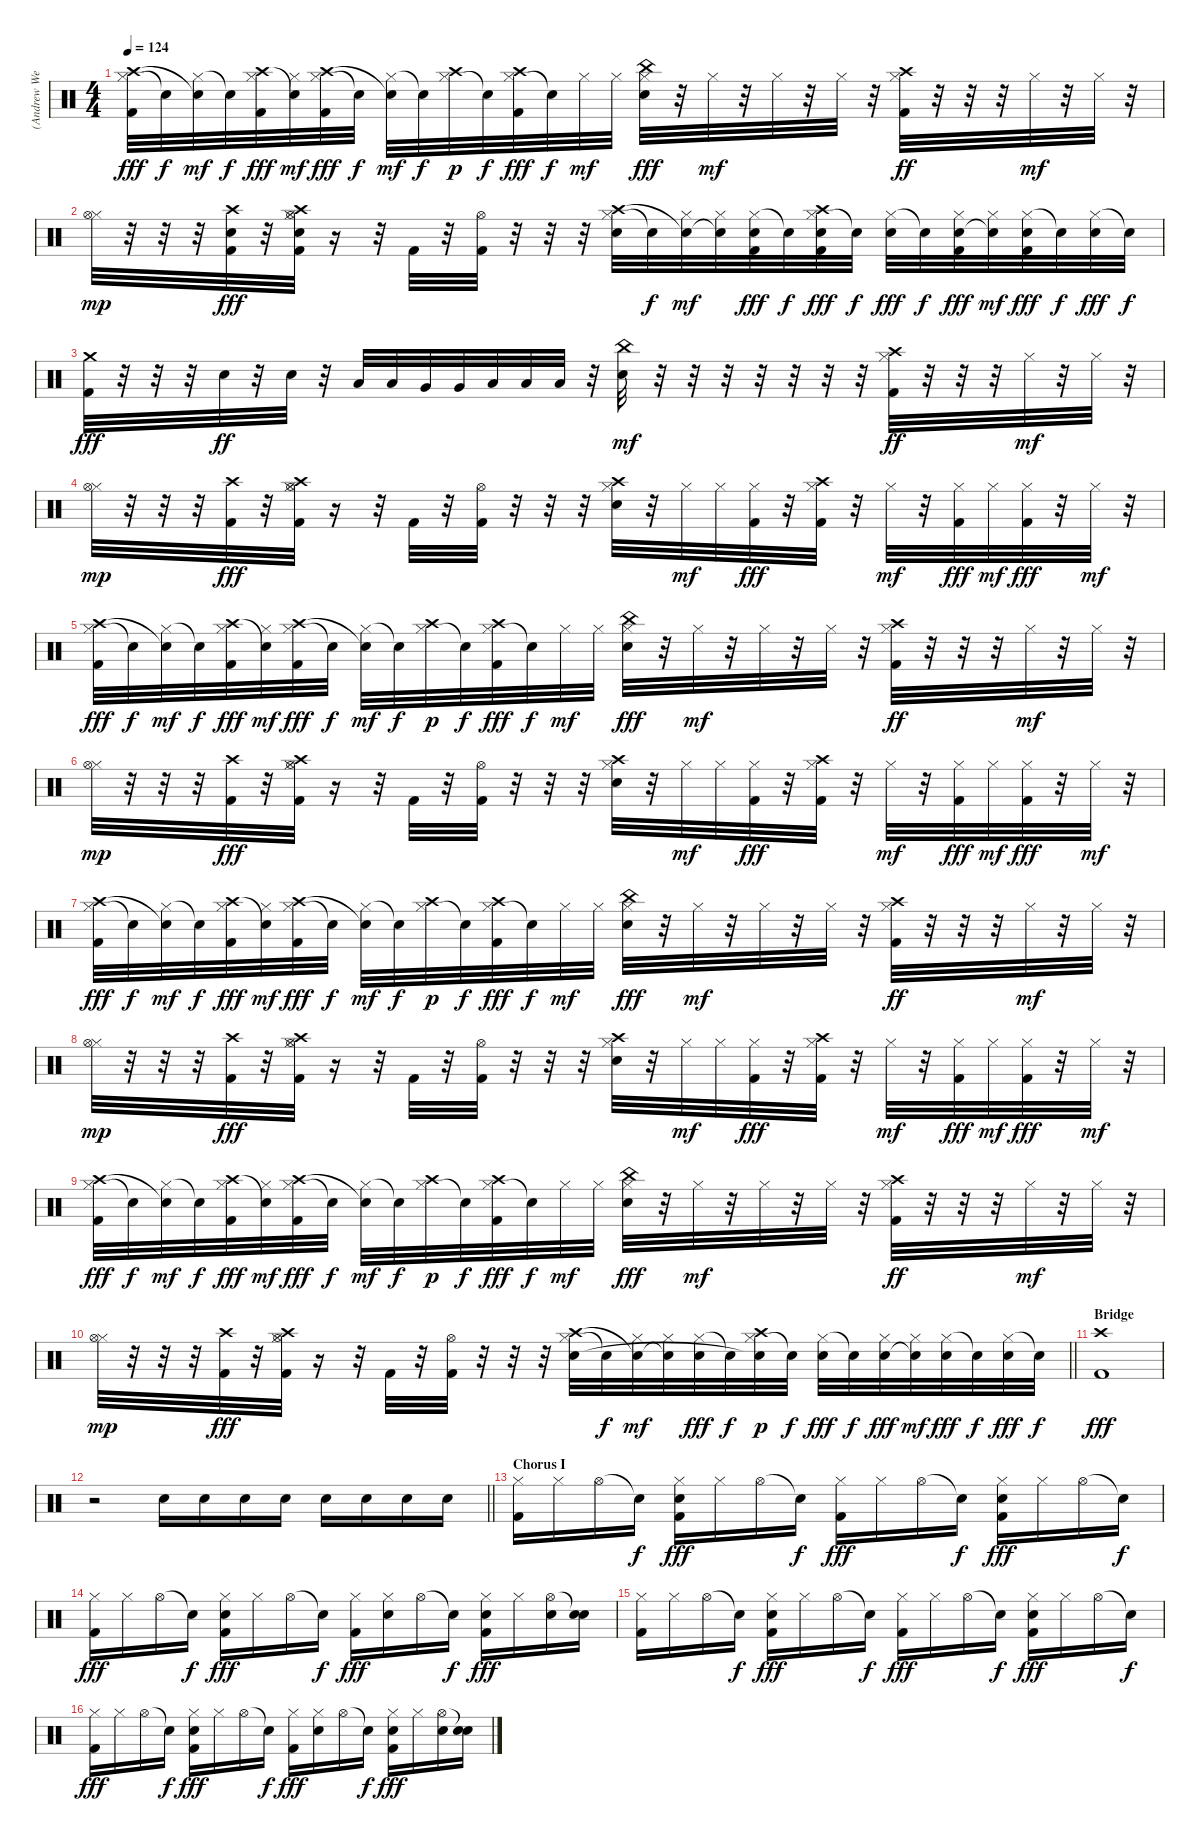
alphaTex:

\track ("(Andrew Wetzel) Drums" "(Andrew We") {instrument percussion}
\staff {score}
\articulation defaults
\ts (4 4)
\tempo 124
\clef neutral
\ks c
("Hi-Hat (closed)" "Crash high (hit)" "Kick (hit) 2").32{dy fff} "Snare (hit)"{t}.32{dy f} ("Hi-Hat (closed)" "Snare (hit)"{t}).32{dy mf} "Snare (hit)"{t}.32{dy f} ("Hi-Hat (closed)" "Crash high (hit)" "Kick (hit) 2").32{dy fff} ("Hi-Hat (closed)" "Snare (hit)"{t}).32{dy mf} ("Hi-Hat (closed)" "Crash high (hit)" "Kick (hit) 2").32{dy fff} "Snare (hit)"{t}.32{dy f} ("Hi-Hat (closed)" "Snare (hit)"{t}).32{dy mf} "Snare (hit)"{t}.32{dy f} ("Hi-Hat (closed)" "Crash high (hit)").32{dy p} "Snare (hit)"{t}.32{dy f} ("Hi-Hat (closed)" "Crash high (hit)" "Kick (hit) 2").32{dy fff} "Snare (hit)"{t}.32{dy f} "Hi-Hat (closed)".32{dy mf} "Hi-Hat (closed)".32 ("Hi-Hat (closed)" "China (hit)" "Electric Snare (hit)").32{dy fff} r.32 "Hi-Hat (closed)".32{dy mf} r.32 "Hi-Hat (closed)".32 r.32 "Hi-Hat (closed)".32 r.32 ("Hi-Hat (closed)" "Crash high (hit)" "Kick (hit) 2").32{dy ff} r.32 r.32 r.32 "Hi-Hat (closed)".32{dy mf} r.32 "Hi-Hat (closed)".32 r.32 |
("Hi-Hat (closed)" "Hi-Hat (open)").32{dy mp} r.32 r.32 r.32 ("Crash high (hit)" "Electric Snare (hit)" "Kick (hit) 2").32{dy fff} r.32 ("Hi-Hat (closed)" "Crash high (hit)" "Hi-Hat (open)" "Electric Snare (hit)" "Kick (hit) 2").32 r.16 r.32 "Kick (hit) 2".32 r.32 ("Hi-Hat (open)" "Kick (hit) 2").32 r.32 r.32 r.32 ("Hi-Hat (closed)" "Crash high (hit)" "Electric Snare (hit)").32 "Snare (hit)"{t}.32{dy f} ("Hi-Hat (closed)" "Electric Snare (hit)"{t}).32{dy mf} ("Hi-Hat (closed)" "Snare (hit)"{t}).32 ("Hi-Hat (closed)" "Electric Snare (hit)" "Kick (hit) 2").32{dy fff} "Snare (hit)"{t}.32{dy f} ("Hi-Hat (closed)" "Crash high (hit)" "Electric Snare (hit)" "Kick (hit) 2").32{dy fff} "Snare (hit)"{t}.32{dy f} ("Hi-Hat (closed)" "Electric Snare (hit)").32{dy fff} "Snare (hit)"{t}.32{dy f} ("Hi-Hat (closed)" "Electric Snare (hit)" "Kick (hit) 2").32{dy fff} ("Hi-Hat (closed)" "Snare (hit)"{t}).32{dy mf} ("Hi-Hat (closed)" "Electric Snare (hit)" "Kick (hit) 2").32{dy fff} "Snare (hit)"{t}.32{dy f} ("Hi-Hat (closed)" "Electric Snare (hit)").32{dy fff} "Snare (hit)"{t}.32{dy f} |
("Crash medium (hit)" "Kick (hit) 2").32{dy fff} r.32 r.32 r.32 "Electric Snare (hit)".32{dy ff} r.32 "Electric Snare (hit)".32 r.32 "Low Tom (hit)".32 "Low Tom (hit)".32 "Very Low Tom (hit)".32 "Very Low Tom (hit)".32 "Low Floor Tom (hit)".32 "Low Floor Tom (hit)".32 "Low Floor Tom (hit)".32 r.32 ("China (hit)" "Electric Snare (hit)").32{dy mf} r.32 r.32 r.32 r.32 r.32 r.32 r.32 ("Hi-Hat (closed)" "Crash high (hit)" "Kick (hit) 2").32{dy ff} r.32 r.32 r.32 "Hi-Hat (closed)".32{dy mf} r.32 "Hi-Hat (closed)".32 r.32 |
("Hi-Hat (closed)" "Hi-Hat (open)").32{dy mp} r.32 r.32 r.32 ("Crash high (hit)" "Kick (hit) 2").32{dy fff} r.32 ("Hi-Hat (closed)" "Crash high (hit)" "Hi-Hat (open)" "Kick (hit) 2").32 r.16 r.32 "Kick (hit) 2".32 r.32 ("Hi-Hat (open)" "Kick (hit) 2").32 r.32 r.32 r.32 ("Hi-Hat (closed)" "Crash high (hit)" "Electric Snare (hit)").32 r.32 "Hi-Hat (closed)".32{dy mf} "Hi-Hat (closed)".32 ("Hi-Hat (closed)" "Kick (hit) 2").32{dy fff} r.32 ("Hi-Hat (closed)" "Crash high (hit)" "Kick (hit) 2").32 r.32 "Hi-Hat (closed)".32{dy mf} r.32 ("Hi-Hat (closed)" "Kick (hit) 2").32{dy fff} "Hi-Hat (closed)".32{dy mf} ("Hi-Hat (closed)" "Kick (hit) 2").32{dy fff} r.32 "Hi-Hat (closed)".32{dy mf} r.32 |
("Hi-Hat (closed)" "Crash high (hit)" "Kick (hit) 2").32{dy fff} "Snare (hit)"{t}.32{dy f} ("Hi-Hat (closed)" "Snare (hit)"{t}).32{dy mf} "Snare (hit)"{t}.32{dy f} ("Hi-Hat (closed)" "Crash high (hit)" "Kick (hit) 2").32{dy fff} ("Hi-Hat (closed)" "Snare (hit)"{t}).32{dy mf} ("Hi-Hat (closed)" "Crash high (hit)" "Kick (hit) 2").32{dy fff} "Snare (hit)"{t}.32{dy f} ("Hi-Hat (closed)" "Snare (hit)"{t}).32{dy mf} "Snare (hit)"{t}.32{dy f} ("Hi-Hat (closed)" "Crash high (hit)").32{dy p} "Snare (hit)"{t}.32{dy f} ("Hi-Hat (closed)" "Crash high (hit)" "Kick (hit) 2").32{dy fff} "Snare (hit)"{t}.32{dy f} "Hi-Hat (closed)".32{dy mf} "Hi-Hat (closed)".32 ("Hi-Hat (closed)" "China (hit)" "Electric Snare (hit)").32{dy fff} r.32 "Hi-Hat (closed)".32{dy mf} r.32 "Hi-Hat (closed)".32 r.32 "Hi-Hat (closed)".32 r.32 ("Hi-Hat (closed)" "Crash high (hit)" "Kick (hit) 2").32{dy ff} r.32 r.32 r.32 "Hi-Hat (closed)".32{dy mf} r.32 "Hi-Hat (closed)".32 r.32 |
("Hi-Hat (closed)" "Hi-Hat (open)").32{dy mp} r.32 r.32 r.32 ("Crash high (hit)" "Kick (hit) 2").32{dy fff} r.32 ("Hi-Hat (closed)" "Crash high (hit)" "Hi-Hat (open)" "Kick (hit) 2").32 r.16 r.32 "Kick (hit) 2".32 r.32 ("Hi-Hat (open)" "Kick (hit) 2").32 r.32 r.32 r.32 ("Hi-Hat (closed)" "Crash high (hit)" "Electric Snare (hit)").32 r.32 "Hi-Hat (closed)".32{dy mf} "Hi-Hat (closed)".32 ("Hi-Hat (closed)" "Kick (hit) 2").32{dy fff} r.32 ("Hi-Hat (closed)" "Crash high (hit)" "Kick (hit) 2").32 r.32 "Hi-Hat (closed)".32{dy mf} r.32 ("Hi-Hat (closed)" "Kick (hit) 2").32{dy fff} "Hi-Hat (closed)".32{dy mf} ("Hi-Hat (closed)" "Kick (hit) 2").32{dy fff} r.32 "Hi-Hat (closed)".32{dy mf} r.32 |
("Hi-Hat (closed)" "Crash high (hit)" "Kick (hit) 2").32{dy fff} "Snare (hit)"{t}.32{dy f} ("Hi-Hat (closed)" "Snare (hit)"{t}).32{dy mf} "Snare (hit)"{t}.32{dy f} ("Hi-Hat (closed)" "Crash high (hit)" "Kick (hit) 2").32{dy fff} ("Hi-Hat (closed)" "Snare (hit)"{t}).32{dy mf} ("Hi-Hat (closed)" "Crash high (hit)" "Kick (hit) 2").32{dy fff} "Snare (hit)"{t}.32{dy f} ("Hi-Hat (closed)" "Snare (hit)"{t}).32{dy mf} "Snare (hit)"{t}.32{dy f} ("Hi-Hat (closed)" "Crash high (hit)").32{dy p} "Snare (hit)"{t}.32{dy f} ("Hi-Hat (closed)" "Crash high (hit)" "Kick (hit) 2").32{dy fff} "Snare (hit)"{t}.32{dy f} "Hi-Hat (closed)".32{dy mf} "Hi-Hat (closed)".32 ("Hi-Hat (closed)" "China (hit)" "Electric Snare (hit)").32{dy fff} r.32 "Hi-Hat (closed)".32{dy mf} r.32 "Hi-Hat (closed)".32 r.32 "Hi-Hat (closed)".32 r.32 ("Hi-Hat (closed)" "Crash high (hit)" "Kick (hit) 2").32{dy ff} r.32 r.32 r.32 "Hi-Hat (closed)".32{dy mf} r.32 "Hi-Hat (closed)".32 r.32 |
("Hi-Hat (closed)" "Hi-Hat (open)").32{dy mp} r.32 r.32 r.32 ("Crash high (hit)" "Kick (hit) 2").32{dy fff} r.32 ("Hi-Hat (closed)" "Crash high (hit)" "Hi-Hat (open)" "Kick (hit) 2").32 r.16 r.32 "Kick (hit) 2".32 r.32 ("Hi-Hat (open)" "Kick (hit) 2").32 r.32 r.32 r.32 ("Hi-Hat (closed)" "Crash high (hit)" "Electric Snare (hit)").32 r.32 "Hi-Hat (closed)".32{dy mf} "Hi-Hat (closed)".32 ("Hi-Hat (closed)" "Kick (hit) 2").32{dy fff} r.32 ("Hi-Hat (closed)" "Crash high (hit)" "Kick (hit) 2").32 r.32 "Hi-Hat (closed)".32{dy mf} r.32 ("Hi-Hat (closed)" "Kick (hit) 2").32{dy fff} "Hi-Hat (closed)".32{dy mf} ("Hi-Hat (closed)" "Kick (hit) 2").32{dy fff} r.32 "Hi-Hat (closed)".32{dy mf} r.32 |
("Hi-Hat (closed)" "Crash high (hit)" "Kick (hit) 2").32{dy fff} "Snare (hit)"{t}.32{dy f} ("Hi-Hat (closed)" "Snare (hit)"{t}).32{dy mf} "Snare (hit)"{t}.32{dy f} ("Hi-Hat (closed)" "Crash high (hit)" "Kick (hit) 2").32{dy fff} ("Hi-Hat (closed)" "Snare (hit)"{t}).32{dy mf} ("Hi-Hat (closed)" "Crash high (hit)" "Kick (hit) 2").32{dy fff} "Snare (hit)"{t}.32{dy f} ("Hi-Hat (closed)" "Snare (hit)"{t}).32{dy mf} "Snare (hit)"{t}.32{dy f} ("Hi-Hat (closed)" "Crash high (hit)").32{dy p} "Snare (hit)"{t}.32{dy f} ("Hi-Hat (closed)" "Crash high (hit)" "Kick (hit) 2").32{dy fff} "Snare (hit)"{t}.32{dy f} "Hi-Hat (closed)".32{dy mf} "Hi-Hat (closed)".32 ("Hi-Hat (closed)" "China (hit)" "Electric Snare (hit)").32{dy fff} r.32 "Hi-Hat (closed)".32{dy mf} r.32 "Hi-Hat (closed)".32 r.32 "Hi-Hat (closed)".32 r.32 ("Hi-Hat (closed)" "Crash high (hit)" "Kick (hit) 2").32{dy ff} r.32 r.32 r.32 "Hi-Hat (closed)".32{dy mf} r.32 "Hi-Hat (closed)".32 r.32 |
\barLineRight lightlight
("Hi-Hat (closed)" "Hi-Hat (open)").32{dy mp} r.32 r.32 r.32 ("Crash high (hit)" "Kick (hit) 2").32{dy fff} r.32 ("Hi-Hat (closed)" "Crash high (hit)" "Hi-Hat (open)" "Kick (hit) 2").32 r.16 r.32 "Kick (hit) 2".32 r.32 ("Hi-Hat (open)" "Kick (hit) 2").32 r.32 r.32 r.32 ("Hi-Hat (closed)" "Crash high (hit)" "Electric Snare (hit)").32 "Snare (hit)"{t}.32{dy f} ("Hi-Hat (closed)" "Snare (hit)"{t}).32{dy mf} ("Hi-Hat (closed)" "Electric Snare (hit)"{t}).32 ("Hi-Hat (closed)" "Electric Snare (hit)").32{dy fff} "Snare (hit)"{t}.32{dy f} ("Hi-Hat (closed)" "Crash high (hit)" "Snare (hit)"{t}).32{dy p} "Electric Snare (hit)"{t}.32{dy f} ("Hi-Hat (closed)" "Electric Snare (hit)").32{dy fff} "Electric Snare (hit)"{t}.32{dy f} ("Hi-Hat (closed)" "Electric Snare (hit)").32{dy fff} ("Hi-Hat (closed)" "Electric Snare (hit)"{t}).32{dy mf} ("Hi-Hat (closed)" "Electric Snare (hit)").32{dy fff} "Electric Snare (hit)"{t}.32{dy f} ("Hi-Hat (closed)" "Electric Snare (hit)").32{dy fff} "Snare (hit)"{t}.32{dy f} |
\section ("" "Bridge")
("Crash high (hit)" "Kick (hit) 2").1{dy fff} |
\barLineRight lightlight
r.2 "Electric Snare (hit)".16 "Electric Snare (hit)".16 "Electric Snare (hit)".16 "Electric Snare (hit)".16 "Electric Snare (hit)".16 "Electric Snare (hit)".16 "Electric Snare (hit)".16 "Electric Snare (hit)".16 |
\section ("" "Chorus I")
("Hi-Hat (closed)" "Kick (hit) 2").16 "Hi-Hat (closed)".16 "Hi-Hat (open)".16 "Snare (hit)"{t}.16{dy f} ("Hi-Hat (closed)" "Electric Snare (hit)" "Kick (hit) 2").16{dy fff} "Hi-Hat (closed)".16 "Hi-Hat (open)".16 "Snare (hit)"{t}.16{dy f} ("Hi-Hat (closed)" "Kick (hit) 2").16{dy fff} "Hi-Hat (closed)".16 "Hi-Hat (open)".16 "Snare (hit)"{t}.16{dy f} ("Hi-Hat (closed)" "Electric Snare (hit)" "Kick (hit) 2").16{dy fff} "Hi-Hat (closed)".16 "Hi-Hat (open)".16 "Snare (hit)"{t}.16{dy f} |
("Hi-Hat (closed)" "Kick (hit) 2").16{dy fff} "Hi-Hat (closed)".16 "Hi-Hat (open)".16 "Snare (hit)"{t}.16{dy f} ("Hi-Hat (closed)" "Electric Snare (hit)" "Kick (hit) 2").16{dy fff} "Hi-Hat (closed)".16 "Hi-Hat (open)".16 "Snare (hit)"{t}.16{dy f} ("Hi-Hat (closed)" "Kick (hit) 2").16{dy fff} ("Hi-Hat (closed)" "Electric Snare (hit)").16 "Hi-Hat (open)".16 "Snare (hit)"{t}.16{dy f} ("Hi-Hat (closed)" "Electric Snare (hit)" "Kick (hit) 2").16{dy fff} "Hi-Hat (closed)".16 ("Hi-Hat (open)" "Electric Snare (hit)").16 ("Snare (hit)"{t} "Electric Snare (hit)").16 |
("Hi-Hat (closed)" "Kick (hit) 2").16 "Hi-Hat (closed)".16 "Hi-Hat (open)".16 "Snare (hit)"{t}.16{dy f} ("Hi-Hat (closed)" "Electric Snare (hit)" "Kick (hit) 2").16{dy fff} "Hi-Hat (closed)".16 "Hi-Hat (open)".16 "Snare (hit)"{t}.16{dy f} ("Hi-Hat (closed)" "Kick (hit) 2").16{dy fff} "Hi-Hat (closed)".16 "Hi-Hat (open)".16 "Snare (hit)"{t}.16{dy f} ("Hi-Hat (closed)" "Electric Snare (hit)" "Kick (hit) 2").16{dy fff} "Hi-Hat (closed)".16 "Hi-Hat (open)".16 "Snare (hit)"{t}.16{dy f} |
("Hi-Hat (closed)" "Kick (hit) 2").16{dy fff} "Hi-Hat (closed)".16 "Hi-Hat (open)".16 "Snare (hit)"{t}.16{dy f} ("Hi-Hat (closed)" "Electric Snare (hit)" "Kick (hit) 2").16{dy fff} "Hi-Hat (closed)".16 "Hi-Hat (open)".16 "Snare (hit)"{t}.16{dy f} ("Hi-Hat (closed)" "Kick (hit) 2").16{dy fff} ("Hi-Hat (closed)" "Electric Snare (hit)").16 "Hi-Hat (open)".16 "Snare (hit)"{t}.16{dy f} ("Hi-Hat (closed)" "Electric Snare (hit)" "Kick (hit) 2").16{dy fff} "Hi-Hat (closed)".16 ("Hi-Hat (open)" "Electric Snare (hit)").16 ("Snare (hit)"{t} "Electric Snare (hit)").16
